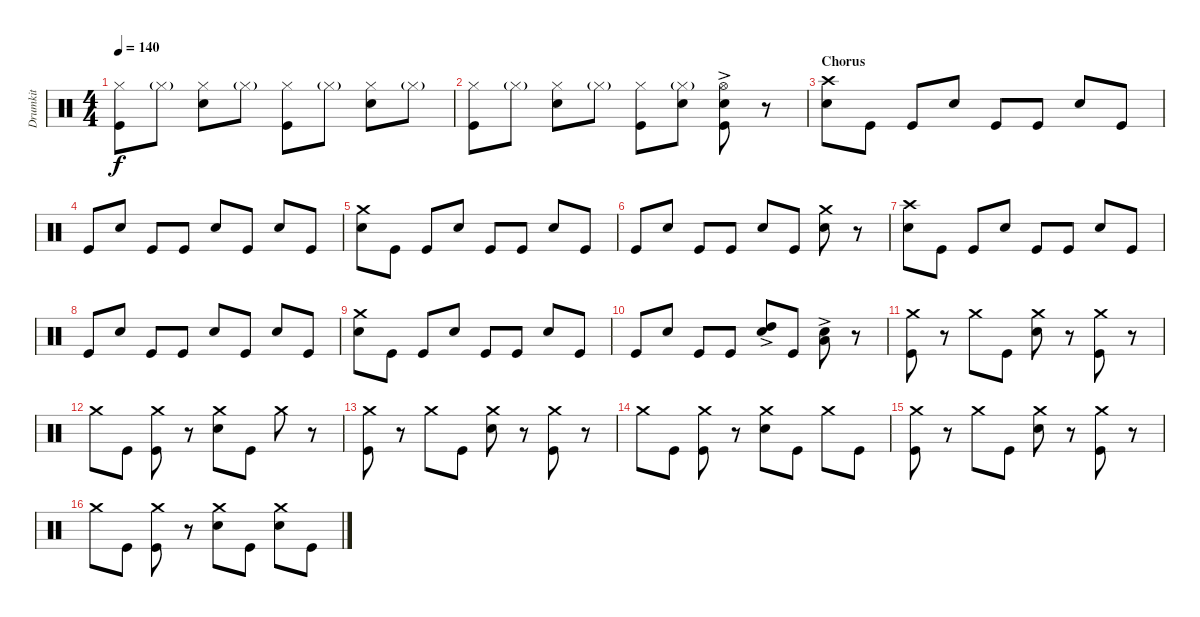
\track ("Drumkit" "Drumkit") {instrument percussion}
\staff {score}
\articulation defaults
\ts (4 4)
\tempo 140
\clef neutral
\ks c
("Kick (hit)" "Hi-Hat (closed)").8{dy f} "Hi-Hat (closed)"{g}.8 ("Snare (hit) 2" "Hi-Hat (closed)").8 "Hi-Hat (closed)"{g}.8 ("Hi-Hat (closed)" "Kick (hit)").8 "Hi-Hat (closed)"{g}.8 ("Snare (hit) 2" "Hi-Hat (closed)").8 "Hi-Hat (closed)"{g}.8 |
("Kick (hit)" "Hi-Hat (closed)").8 "Hi-Hat (closed)"{g}.8 ("Hi-Hat (closed)" "Snare (hit) 2").8 "Hi-Hat (closed)"{g}.8 ("Hi-Hat (closed)" "Kick (hit)").8 ("Hi-Hat (closed)"{g} "Snare (hit) 2").8 ("Snare (hit) 2"{ac} "Kick (hit)"{ac} "Hi-Hat (open)"{ac}).8 r.8 |
\section ("" "Chorus")
("Snare (hit) 2" "Crash high (hit)").8 "Kick (hit)".8 "Kick (hit)".8 "Snare (hit) 2".8 "Kick (hit)".8 "Kick (hit)".8 "Snare (hit) 2".8 "Kick (hit)".8 |
"Kick (hit)".8 "Snare (hit) 2".8 "Kick (hit)".8 "Kick (hit)".8 "Snare (hit) 2".8 "Kick (hit)".8 "Snare (hit) 2".8 "Kick (hit)".8 |
("Snare (hit) 2" "Crash medium (hit)").8 "Kick (hit)".8 "Kick (hit)".8 "Snare (hit) 2".8 "Kick (hit)".8 "Kick (hit)".8 "Snare (hit) 2".8 "Kick (hit)".8 |
"Kick (hit)".8 "Snare (hit) 2".8 "Kick (hit)".8 "Kick (hit)".8 "Snare (hit) 2".8 "Kick (hit)".8 ("Snare (hit) 2" "Crash medium (hit)").8 r.8 |
("Snare (hit) 2" "Crash high (hit)").8 "Kick (hit)".8 "Kick (hit)".8 "Snare (hit) 2".8 "Kick (hit)".8 "Kick (hit)".8 "Snare (hit) 2".8 "Kick (hit)".8 |
"Kick (hit)".8 "Snare (hit) 2".8 "Kick (hit)".8 "Kick (hit)".8 "Snare (hit) 2".8 "Kick (hit)".8 "Snare (hit) 2".8 "Kick (hit)".8 |
("Snare (hit) 2" "Crash medium (hit)").8 "Kick (hit)".8 "Kick (hit)".8 "Snare (hit) 2".8 "Kick (hit)".8 "Kick (hit)".8 "Snare (hit) 2".8 "Kick (hit)".8 |
"Kick (hit)".8 "Snare (hit) 2".8 "Kick (hit)".8 "Kick (hit)".8 ("Snare (hit) 2"{ac} "High Tom (hit)"{ac}).8 "Kick (hit)".8 ("Snare (hit) 2"{ac} "Low Tom (hit)"{ac}).8 r.8 |
("Kick (hit)" "Crash medium (hit)").8 r.8 "Crash medium (hit)".8 "Kick (hit)".8 ("Snare (hit) 2" "Crash medium (hit)").8 r.8 ("Kick (hit)" "Crash medium (hit)").8 r.8 |
"Crash medium (hit)".8 "Kick (hit)".8 ("Kick (hit)" "Crash medium (hit)").8 r.8 ("Snare (hit) 2" "Crash medium (hit)").8 "Kick (hit)".8 "Crash medium (hit)".8 r.8 |
("Kick (hit)" "Crash medium (hit)").8 r.8 "Crash medium (hit)".8 "Kick (hit)".8 ("Snare (hit) 2" "Crash medium (hit)").8 r.8 ("Kick (hit)" "Crash medium (hit)").8 r.8 |
"Crash medium (hit)".8 "Kick (hit)".8 ("Kick (hit)" "Crash medium (hit)").8 r.8 ("Snare (hit) 2" "Crash medium (hit)").8 "Kick (hit)".8 "Crash medium (hit)".8 "Kick (hit)".8 |
("Kick (hit)" "Crash medium (hit)").8 r.8 "Crash medium (hit)".8 "Kick (hit)".8 ("Snare (hit) 2" "Crash medium (hit)").8 r.8 ("Kick (hit)" "Crash medium (hit)").8 r.8 |
"Crash medium (hit)".8 "Kick (hit)".8 ("Kick (hit)" "Crash medium (hit)").8 r.8 ("Snare (hit) 2" "Crash medium (hit)").8 "Kick (hit)".8 ("Crash medium (hit)" "Snare (hit) 2").8 "Kick (hit)".8
